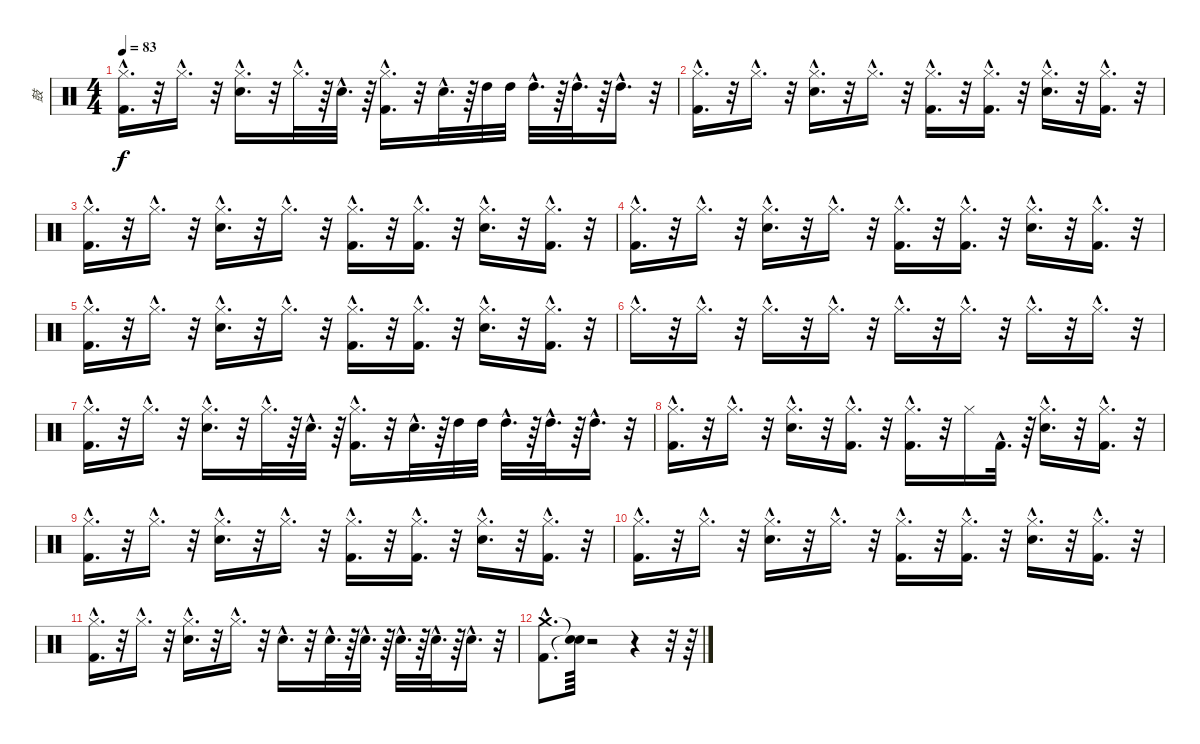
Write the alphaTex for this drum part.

\track ("鼓" "鼓") {instrument percussion}
\staff {score}
\articulation defaults
\ts (4 4)
\tempo 83
\clef neutral
\ks c
("Hi-Hat (closed)"{hac} "Kick (hit) 2"{hac}).16{d dy f} r.32 "Hi-Hat (closed)"{hac}.16{d} r.32 ("Hi-Hat (closed)"{hac} "Snare (hit) 2"{hac}).16{d} r.32 "Hi-Hat (closed)"{hac}.32{d} r.64 "Snare (hit) 2"{hac}.32{d} r.64 ("Kick (hit) 2"{hac} "Hi-Hat (closed)"{hac}).16{d} r.32 "Snare (hit) 2"{hac}.32{d} r.64 "High Tom (hit)".32 "High Tom (hit)".32 "High Tom (hit)"{hac}.32{d} r.64 "High Tom (hit)"{hac}.32{d} r.64 "High Tom (hit)"{hac}.16{d} r.32 |
("Hi-Hat (closed)"{hac} "Kick (hit) 2"{hac}).16{d} r.32 "Hi-Hat (closed)"{hac}.16{d} r.32 ("Snare (hit) 2"{hac} "Hi-Hat (closed)"{hac}).16{d} r.32 "Hi-Hat (closed)"{hac}.16{d} r.32 ("Hi-Hat (closed)"{hac} "Kick (hit) 2"{hac}).16{d} r.32 ("Hi-Hat (closed)"{hac} "Kick (hit) 2"{hac}).16{d} r.32 ("Snare (hit) 2"{hac} "Hi-Hat (closed)"{hac}).16{d} r.32 ("Hi-Hat (closed)"{hac} "Kick (hit) 2"{hac}).16{d} r.32 |
("Kick (hit) 2"{hac} "Hi-Hat (closed)"{hac}).16{d} r.32 "Hi-Hat (closed)"{hac}.16{d} r.32 ("Hi-Hat (closed)"{hac} "Snare (hit) 2"{hac}).16{d} r.32 "Hi-Hat (closed)"{hac}.16{d} r.32 ("Kick (hit) 2"{hac} "Hi-Hat (closed)"{hac}).16{d} r.32 ("Hi-Hat (closed)"{hac} "Kick (hit) 2"{hac}).16{d} r.32 ("Snare (hit) 2"{hac} "Hi-Hat (closed)"{hac}).16{d} r.32 ("Kick (hit) 2"{hac} "Hi-Hat (closed)"{hac}).16{d} r.32 |
("Kick (hit) 2"{hac} "Hi-Hat (closed)"{hac}).16{d} r.32 "Hi-Hat (closed)"{hac}.16{d} r.32 ("Snare (hit) 2"{hac} "Hi-Hat (closed)"{hac}).16{d} r.32 "Hi-Hat (closed)"{hac}.16{d} r.32 ("Kick (hit) 2"{hac} "Hi-Hat (closed)"{hac}).16{d} r.32 ("Kick (hit) 2"{hac} "Hi-Hat (closed)"{hac}).16{d} r.32 ("Hi-Hat (closed)"{hac} "Snare (hit) 2"{hac}).16{d} r.32 ("Hi-Hat (closed)"{hac} "Kick (hit) 2"{hac}).16{d} r.32 |
("Kick (hit) 2"{hac} "Hi-Hat (closed)"{hac}).16{d} r.32 "Hi-Hat (closed)"{hac}.16{d} r.32 ("Hi-Hat (closed)"{hac} "Snare (hit) 2"{hac}).16{d} r.32 "Hi-Hat (closed)"{hac}.16{d} r.32 ("Kick (hit) 2"{hac} "Hi-Hat (closed)"{hac}).16{d} r.32 ("Kick (hit) 2"{hac} "Hi-Hat (closed)"{hac}).16{d} r.32 ("Snare (hit) 2"{hac} "Hi-Hat (closed)"{hac}).16{d} r.32 ("Kick (hit) 2"{hac} "Hi-Hat (closed)"{hac}).16{d} r.32 |
"Hi-Hat (closed)"{hac}.16{d} r.32 "Hi-Hat (closed)"{hac}.16{d} r.32 "Hi-Hat (closed)"{hac}.16{d} r.32 "Hi-Hat (closed)"{hac}.16{d} r.32 "Hi-Hat (closed)"{hac}.16{d} r.32 "Hi-Hat (closed)"{hac}.16{d} r.32 "Hi-Hat (closed)"{hac}.16{d} r.32 "Hi-Hat (closed)"{hac}.16{d} r.32 |
("Kick (hit) 2"{hac} "Hi-Hat (closed)"{hac}).16{d} r.32 "Hi-Hat (closed)"{hac}.16{d} r.32 ("Hi-Hat (closed)"{hac} "Snare (hit) 2"{hac}).16{d} r.32 "Hi-Hat (closed)"{hac}.32{d} r.64 "Snare (hit) 2"{hac}.32{d} r.64 ("Kick (hit) 2"{hac} "Hi-Hat (closed)"{hac}).16{d} r.32 "Snare (hit) 2"{hac}.32{d} r.64 "High Tom (hit)".32 "High Tom (hit)".32 "High Tom (hit)"{hac}.32{d} r.64 "High Tom (hit)"{hac}.32{d} r.64 "High Tom (hit)"{hac}.16{d} r.32 |
("Kick (hit) 2"{hac} "Hi-Hat (closed)"{hac}).16{d} r.32 "Hi-Hat (closed)"{hac}.16{d} r.32 ("Snare (hit) 2"{hac} "Hi-Hat (closed)"{hac}).16{d} r.32 ("Kick (hit) 2"{hac} "Hi-Hat (closed)"{hac}).16{d} r.32 ("Hi-Hat (closed)"{hac} "Kick (hit) 2"{hac}).16{d} r.32 "Hi-Hat (closed)".16 "Kick (hit) 2"{hac}.32{d} r.64 ("Snare (hit) 2"{hac} "Hi-Hat (closed)"{hac}).16{d} r.32 ("Hi-Hat (closed)"{hac} "Kick (hit) 2"{hac}).16{d} r.32 |
("Hi-Hat (closed)"{hac} "Kick (hit) 2"{hac}).16{d} r.32 "Hi-Hat (closed)"{hac}.16{d} r.32 ("Snare (hit) 2"{hac} "Hi-Hat (closed)"{hac}).16{d} r.32 "Hi-Hat (closed)"{hac}.16{d} r.32 ("Kick (hit) 2"{hac} "Hi-Hat (closed)"{hac}).16{d} r.32 ("Hi-Hat (closed)"{hac} "Kick (hit) 2"{hac}).16{d} r.32 ("Hi-Hat (closed)"{hac} "Snare (hit) 2"{hac}).16{d} r.32 ("Hi-Hat (closed)"{hac} "Kick (hit) 2"{hac}).16{d} r.32 |
("Hi-Hat (closed)"{hac} "Kick (hit) 2"{hac}).16{d} r.32 "Hi-Hat (closed)"{hac}.16{d} r.32 ("Snare (hit) 2"{hac} "Hi-Hat (closed)"{hac}).16{d} r.32 "Hi-Hat (closed)"{hac}.16{d} r.32 ("Kick (hit) 2"{hac} "Hi-Hat (closed)"{hac}).16{d} r.32 ("Kick (hit) 2"{hac} "Hi-Hat (closed)"{hac}).16{d} r.32 ("Hi-Hat (closed)"{hac} "Snare (hit) 2"{hac}).16{d} r.32 ("Kick (hit) 2"{hac} "Hi-Hat (closed)"{hac}).16{d} r.32 |
("Hi-Hat (closed)"{hac} "Kick (hit) 2"{hac}).16{d} r.32 "Hi-Hat (closed)"{hac}.16{d} r.32 ("Snare (hit) 2"{hac} "Hi-Hat (closed)"{hac}).16{d} r.32 "Hi-Hat (closed)"{hac}.16{d} r.32 "Snare (hit) 2"{hac}.16{d} r.32 "Snare (hit) 2"{hac}.32{d} r.64 "Snare (hit) 2"{hac}.32{d} r.64 "Snare (hit) 2"{hac}.32{d} r.64 "Snare (hit) 2"{hac}.32{d} r.64 "Snare (hit) 2"{hac}.16{d} r.32 |
("Crash medium (hit)"{hac} "Kick (hit) 2"{hac}).8{d} ("Snare (hit)"{t} "Snare (hit)"{t}).64 r.2 r.4 r.32 r.64
